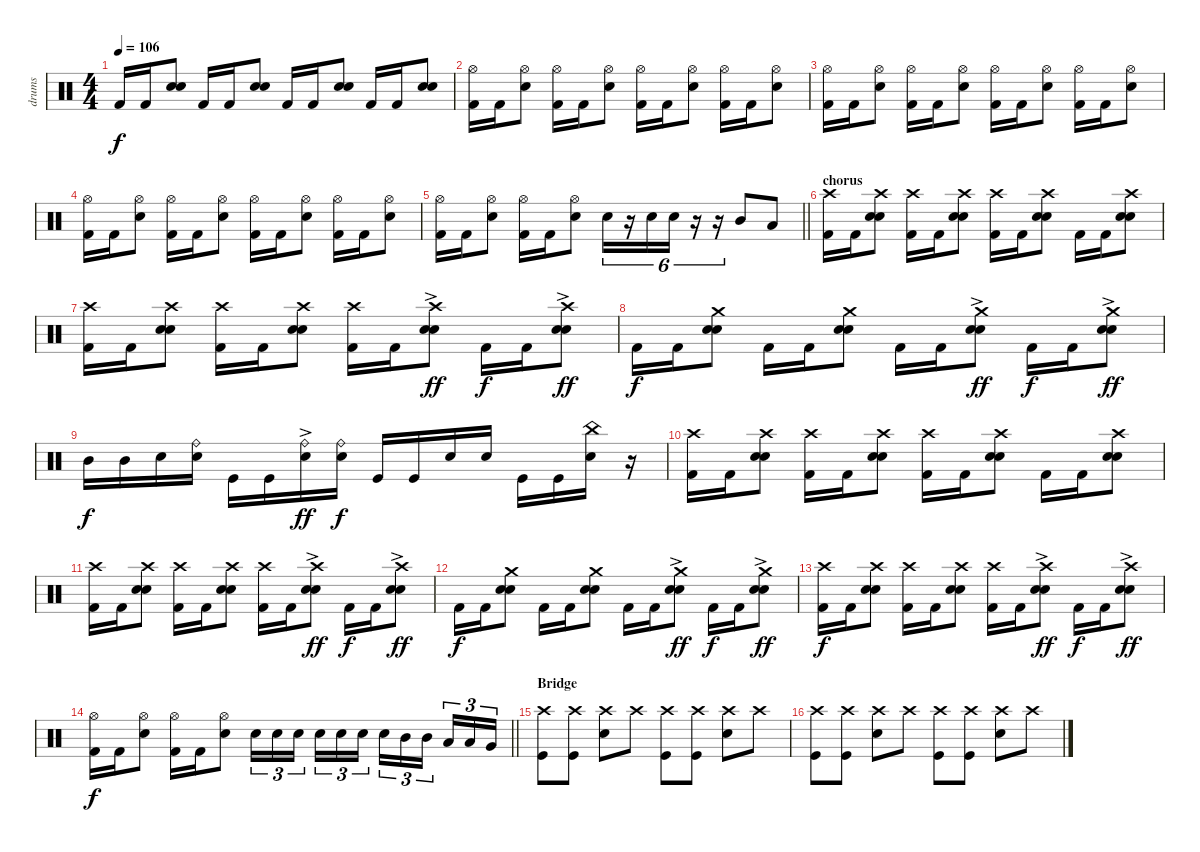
\track ("drums" "drums") {instrument percussion}
\staff {score}
\articulation defaults
\ts (4 4)
\tempo 106
\clef neutral
\ks c "Kick (hit) 2".16{dy f} "Kick (hit) 2".16
("Snare (hit) 2" "Snare (hit) 2").8 "Kick (hit) 2".16 "Kick (hit) 2".16 ("Snare (hit) 2" "Snare (hit) 2").8 "Kick (hit) 2".16 "Kick (hit) 2".16 ("Snare (hit) 2" "Snare (hit) 2").8 "Kick (hit) 2".16 "Kick (hit) 2".16 ("Snare (hit) 2" "Snare (hit) 2").8 |
("Hi-Hat (open)" "Kick (hit) 2").16 "Kick (hit) 2".16 ("Hi-Hat (open)" "Snare (hit) 2").8 ("Hi-Hat (open)" "Kick (hit) 2").16 "Kick (hit) 2".16 ("Hi-Hat (open)" "Snare (hit) 2").8 ("Hi-Hat (open)" "Kick (hit) 2").16 "Kick (hit) 2".16 ("Hi-Hat (open)" "Snare (hit) 2").8 ("Hi-Hat (open)" "Kick (hit) 2").16 "Kick (hit) 2".16 ("Hi-Hat (open)" "Snare (hit) 2").8 |
("Hi-Hat (open)" "Kick (hit) 2").16 "Kick (hit) 2".16 ("Hi-Hat (open)" "Snare (hit) 2").8 ("Hi-Hat (open)" "Kick (hit) 2").16 "Kick (hit) 2".16 ("Hi-Hat (open)" "Snare (hit) 2").8 ("Hi-Hat (open)" "Kick (hit) 2").16 "Kick (hit) 2".16 ("Hi-Hat (open)" "Snare (hit) 2").8 ("Hi-Hat (open)" "Kick (hit) 2").16 "Kick (hit) 2".16 ("Hi-Hat (open)" "Snare (hit) 2").8 |
("Hi-Hat (open)" "Kick (hit) 2").16 "Kick (hit) 2".16 ("Hi-Hat (open)" "Snare (hit) 2").8 ("Hi-Hat (open)" "Kick (hit) 2").16 "Kick (hit) 2".16 ("Hi-Hat (open)" "Snare (hit) 2").8 ("Hi-Hat (open)" "Kick (hit) 2").16 "Kick (hit) 2".16 ("Hi-Hat (open)" "Snare (hit) 2").8 ("Hi-Hat (open)" "Kick (hit) 2").16 "Kick (hit) 2".16 ("Hi-Hat (open)" "Snare (hit) 2").8 |
\barLineRight lightlight
("Hi-Hat (open)" "Kick (hit) 2").16 "Kick (hit) 2".16 ("Hi-Hat (open)" "Snare (hit) 2").8 ("Hi-Hat (open)" "Kick (hit) 2").16 "Kick (hit) 2".16 ("Hi-Hat (open)" "Snare (hit) 2").8 "Snare (hit) 2".16{tu (6 4)} r.16{tu (6 4)} "Snare (hit) 2".16{tu (6 4)} "Snare (hit) 2".16{tu (6 4)} r.16{tu (6 4)} r.16{tu (6 4)} "Mid Tom (hit)".8 "Low Tom (hit)".8 |
\section ("" "chorus")
("Crash high (hit)" "Kick (hit) 2").16 "Kick (hit) 2".16 ("Crash high (hit)" "Snare (hit) 2" "Snare (hit) 2").8 ("Crash high (hit)" "Kick (hit) 2").16 "Kick (hit) 2".16 ("Crash high (hit)" "Snare (hit) 2" "Snare (hit) 2").8 ("Crash high (hit)" "Kick (hit) 2").16 "Kick (hit) 2".16 ("Crash high (hit)" "Snare (hit) 2" "Snare (hit) 2").8 "Kick (hit) 2".16 "Kick (hit) 2".16 ("Crash high (hit)" "Snare (hit) 2" "Snare (hit) 2").8 |
("Crash high (hit)" "Kick (hit) 2").16 "Kick (hit) 2".16 ("Crash high (hit)" "Snare (hit) 2" "Snare (hit) 2").8 ("Crash high (hit)" "Kick (hit) 2").16 "Kick (hit) 2".16 ("Crash high (hit)" "Snare (hit) 2" "Snare (hit) 2").8 ("Crash high (hit)" "Kick (hit) 2").16 "Kick (hit) 2".16 ("Crash high (hit)"{ac} "Snare (hit) 2" "Snare (hit) 2").8{dy ff} "Kick (hit) 2".16{dy f} "Kick (hit) 2".16 ("Crash high (hit)"{ac} "Snare (hit) 2" "Snare (hit) 2").8{dy ff} |
"Kick (hit) 2".16{dy f} "Kick (hit) 2".16 ("Crash medium (hit)" "Snare (hit) 2" "Snare (hit) 2").8 "Kick (hit) 2".16 "Kick (hit) 2".16 ("Crash medium (hit)" "Snare (hit) 2" "Snare (hit) 2").8 "Kick (hit) 2".16 "Kick (hit) 2".16 ("Crash medium (hit)"{ac} "Snare (hit) 2" "Snare (hit) 2").8{dy ff} "Kick (hit) 2".16{dy f} "Kick (hit) 2".16 ("Crash medium (hit)"{ac} "Snare (hit) 2" "Snare (hit) 2").8{dy ff} |
"Mid Tom (hit)".16{dy f} "Mid Tom (hit)".16 "Snare (hit) 2".16 ("Ride (bell)" "Snare (hit) 2").16 "Kick (hit)".16 "Kick (hit)".16 ("Ride (bell)"{ac} "Snare (hit) 2").16{dy ff} ("Ride (bell)" "Snare (hit) 2").16{dy f} "Kick (hit)".16 "Kick (hit)".16 "Snare (hit) 2".16 "Snare (hit) 2".16 "Kick (hit)".16 "Kick (hit)".16 ("China (hit)" "Snare (hit) 2").16 r.16 |
("Crash high (hit)" "Kick (hit) 2").16 "Kick (hit) 2".16 ("Crash high (hit)" "Snare (hit) 2" "Snare (hit) 2").8 ("Crash high (hit)" "Kick (hit) 2").16 "Kick (hit) 2".16 ("Crash high (hit)" "Snare (hit) 2" "Snare (hit) 2").8 ("Crash high (hit)" "Kick (hit) 2").16 "Kick (hit) 2".16 ("Crash high (hit)" "Snare (hit) 2" "Snare (hit) 2").8 "Kick (hit) 2".16 "Kick (hit) 2".16 ("Crash high (hit)" "Snare (hit) 2" "Snare (hit) 2").8 |
("Crash high (hit)" "Kick (hit) 2").16 "Kick (hit) 2".16 ("Crash high (hit)" "Snare (hit) 2" "Snare (hit) 2").8 ("Crash high (hit)" "Kick (hit) 2").16 "Kick (hit) 2".16 ("Crash high (hit)" "Snare (hit) 2" "Snare (hit) 2").8 ("Crash high (hit)" "Kick (hit) 2").16 "Kick (hit) 2".16 ("Crash high (hit)"{ac} "Snare (hit) 2" "Snare (hit) 2").8{dy ff} "Kick (hit) 2".16{dy f} "Kick (hit) 2".16 ("Crash high (hit)"{ac} "Snare (hit) 2" "Snare (hit) 2").8{dy ff} |
"Kick (hit) 2".16{dy f} "Kick (hit) 2".16 ("Crash medium (hit)" "Snare (hit) 2" "Snare (hit) 2").8 "Kick (hit) 2".16 "Kick (hit) 2".16 ("Crash medium (hit)" "Snare (hit) 2" "Snare (hit) 2").8 "Kick (hit) 2".16 "Kick (hit) 2".16 ("Crash medium (hit)"{ac} "Snare (hit) 2" "Snare (hit) 2").8{dy ff} "Kick (hit) 2".16{dy f} "Kick (hit) 2".16 ("Crash medium (hit)"{ac} "Snare (hit) 2" "Snare (hit) 2").8{dy ff} |
("Crash high (hit)" "Kick (hit) 2").16{dy f} "Kick (hit) 2".16 ("Crash high (hit)" "Snare (hit) 2" "Snare (hit) 2").8 ("Crash high (hit)" "Kick (hit) 2").16 "Kick (hit) 2".16 ("Crash high (hit)" "Snare (hit) 2" "Snare (hit) 2").8 ("Crash high (hit)" "Kick (hit) 2").16 "Kick (hit) 2".16 ("Crash high (hit)"{ac} "Snare (hit) 2" "Snare (hit) 2").8{dy ff} "Kick (hit) 2".16{dy f} "Kick (hit) 2".16 ("Crash high (hit)"{ac} "Snare (hit) 2" "Snare (hit) 2").8{dy ff} |
\barLineRight lightlight
("Hi-Hat (open)" "Kick (hit) 2").16{dy f} "Kick (hit) 2".16 ("Hi-Hat (open)" "Snare (hit) 2").8 ("Hi-Hat (open)" "Kick (hit) 2").16 "Kick (hit) 2".16 ("Hi-Hat (open)" "Snare (hit) 2").8 "Snare (hit) 2".16{tu (3 2)} "Snare (hit) 2".16{tu (3 2)} "Snare (hit) 2".16{tu (3 2)} "Snare (hit) 2".16{tu (3 2)} "Snare (hit) 2".16{tu (3 2)} "Snare (hit) 2".16{tu (3 2)} "Snare (hit) 2".16{tu (3 2)} "Mid Tom (hit)".16{tu (3 2)} "Mid Tom (hit)".16{tu (3 2)} "Low Tom (hit)".16{tu (3 2)} "Low Tom (hit)".16{tu (3 2)} "Very Low Tom (hit)".16{tu (3 2)} |
\section ("" "Bridge")
("Crash high (hit)" "Kick (hit)").8 ("Crash high (hit)" "Kick (hit)").8 ("Crash high (hit)" "Snare (hit) 2").8 "Crash high (hit)".8 ("Crash high (hit)" "Kick (hit)").8 ("Crash high (hit)" "Kick (hit)").8 ("Crash high (hit)" "Snare (hit) 2").8 "Crash high (hit)".8 |
("Crash high (hit)" "Kick (hit)").8 ("Crash high (hit)" "Kick (hit)").8 ("Crash high (hit)" "Snare (hit) 2").8 "Crash high (hit)".8 ("Crash high (hit)" "Kick (hit)").8 ("Crash high (hit)" "Kick (hit)").8 ("Crash high (hit)" "Snare (hit) 2").8 "Crash high (hit)".8
